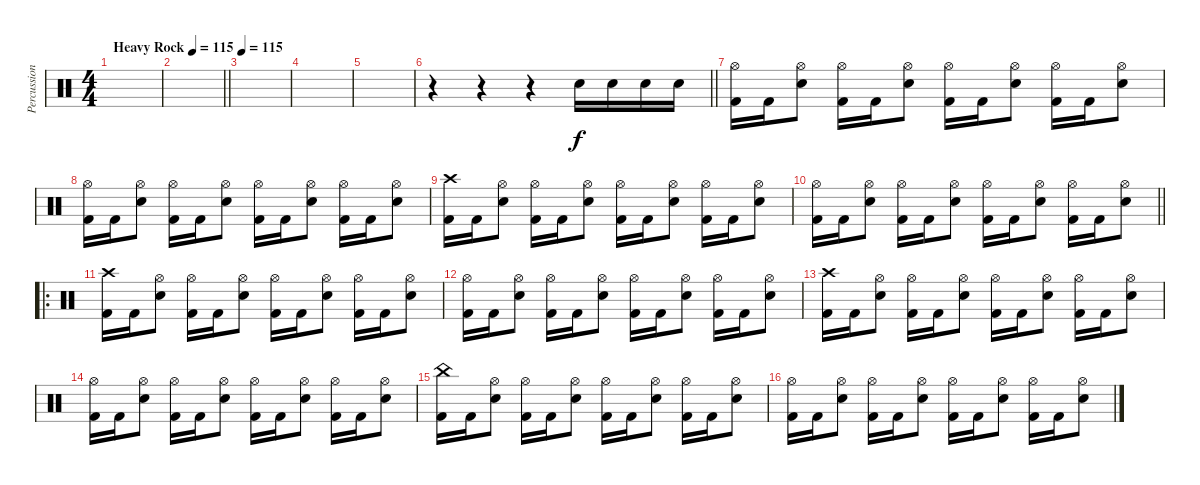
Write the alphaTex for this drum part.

\track ("Percussion" "Percussion") {instrument percussion}
\staff {score}
\articulation defaults
\ts (4 4)
\tempo (115 "Heavy Rock")
\tempo 95
\tempo (115 "Heavy Rock")
\clef neutral
\ks c
|
\barLineRight lightlight
|
\tempo 115
|
|
|
\barLineRight lightlight
r.4 r.4 r.4 "Snare (hit) 2".16 "Snare (hit) 2".16 "Snare (hit) 2".16 "Snare (hit) 2".16 |
("Hi-Hat (open)" "Kick (hit) 2").16 "Kick (hit) 2".16 ("Hi-Hat (open)" "Snare (hit) 2").8 ("Hi-Hat (open)" "Kick (hit) 2").16 "Kick (hit) 2".16 ("Hi-Hat (open)" "Snare (hit) 2").8 ("Hi-Hat (open)" "Kick (hit) 2").16 "Kick (hit) 2".16 ("Hi-Hat (open)" "Snare (hit) 2").8 ("Hi-Hat (open)" "Kick (hit) 2").16 "Kick (hit) 2".16 ("Hi-Hat (open)" "Snare (hit) 2").8 |
("Hi-Hat (open)" "Kick (hit) 2").16 "Kick (hit) 2".16 ("Hi-Hat (open)" "Snare (hit) 2").8 ("Hi-Hat (open)" "Kick (hit) 2").16 "Kick (hit) 2".16 ("Hi-Hat (open)" "Snare (hit) 2").8 ("Hi-Hat (open)" "Kick (hit) 2").16 "Kick (hit) 2".16 ("Hi-Hat (open)" "Snare (hit) 2").8 ("Hi-Hat (open)" "Kick (hit) 2").16 "Kick (hit) 2".16 ("Hi-Hat (open)" "Snare (hit) 2").8 |
("Crash high (hit)" "Kick (hit) 2").16 "Kick (hit) 2".16 ("Hi-Hat (open)" "Snare (hit) 2").8 ("Hi-Hat (open)" "Kick (hit) 2").16 "Kick (hit) 2".16 ("Hi-Hat (open)" "Snare (hit) 2").8 ("Hi-Hat (open)" "Kick (hit) 2").16 "Kick (hit) 2".16 ("Hi-Hat (open)" "Snare (hit) 2").8 ("Hi-Hat (open)" "Kick (hit) 2").16 "Kick (hit) 2".16 ("Hi-Hat (open)" "Snare (hit) 2").8 |
\barLineRight lightlight
("Hi-Hat (open)" "Kick (hit) 2").16 "Kick (hit) 2".16 ("Hi-Hat (open)" "Snare (hit) 2").8 ("Hi-Hat (open)" "Kick (hit) 2").16 "Kick (hit) 2".16 ("Hi-Hat (open)" "Snare (hit) 2").8 ("Hi-Hat (open)" "Kick (hit) 2").16 "Kick (hit) 2".16 ("Hi-Hat (open)" "Snare (hit) 2").8 ("Hi-Hat (open)" "Kick (hit) 2").16 "Kick (hit) 2".16 ("Hi-Hat (open)" "Snare (hit) 2").8 |
\ro
("Crash high (hit)" "Kick (hit) 2").16 "Kick (hit) 2".16 ("Hi-Hat (open)" "Snare (hit) 2").8 ("Hi-Hat (open)" "Kick (hit) 2").16 "Kick (hit) 2".16 ("Hi-Hat (open)" "Snare (hit) 2").8 ("Hi-Hat (open)" "Kick (hit) 2").16 "Kick (hit) 2".16 ("Hi-Hat (open)" "Snare (hit) 2").8 ("Hi-Hat (open)" "Kick (hit) 2").16 "Kick (hit) 2".16 ("Hi-Hat (open)" "Snare (hit) 2").8 |
("Hi-Hat (open)" "Kick (hit) 2").16 "Kick (hit) 2".16 ("Hi-Hat (open)" "Snare (hit) 2").8 ("Hi-Hat (open)" "Kick (hit) 2").16 "Kick (hit) 2".16 ("Hi-Hat (open)" "Snare (hit) 2").8 ("Hi-Hat (open)" "Kick (hit) 2").16 "Kick (hit) 2".16 ("Hi-Hat (open)" "Snare (hit) 2").8 ("Hi-Hat (open)" "Kick (hit) 2").16 "Kick (hit) 2".16 ("Hi-Hat (open)" "Snare (hit) 2").8 |
("Crash high (hit)" "Kick (hit) 2").16 "Kick (hit) 2".16 ("Hi-Hat (open)" "Snare (hit) 2").8 ("Hi-Hat (open)" "Kick (hit) 2").16 "Kick (hit) 2".16 ("Hi-Hat (open)" "Snare (hit) 2").8 ("Hi-Hat (open)" "Kick (hit) 2").16 "Kick (hit) 2".16 ("Hi-Hat (open)" "Snare (hit) 2").8 ("Hi-Hat (open)" "Kick (hit) 2").16 "Kick (hit) 2".16 ("Hi-Hat (open)" "Snare (hit) 2").8 |
("Hi-Hat (open)" "Kick (hit) 2").16 "Kick (hit) 2".16 ("Hi-Hat (open)" "Snare (hit) 2").8 ("Hi-Hat (open)" "Kick (hit) 2").16 "Kick (hit) 2".16 ("Hi-Hat (open)" "Snare (hit) 2").8 ("Hi-Hat (open)" "Kick (hit) 2").16 "Kick (hit) 2".16 ("Hi-Hat (open)" "Snare (hit) 2").8 ("Hi-Hat (open)" "Kick (hit) 2").16 "Kick (hit) 2".16 ("Hi-Hat (open)" "Snare (hit) 2").8 |
("China (hit)" "Kick (hit) 2").16 "Kick (hit) 2".16 ("Hi-Hat (open)" "Snare (hit) 2").8 ("Hi-Hat (open)" "Kick (hit) 2").16 "Kick (hit) 2".16 ("Hi-Hat (open)" "Snare (hit) 2").8 ("Hi-Hat (open)" "Kick (hit) 2").16 "Kick (hit) 2".16 ("Hi-Hat (open)" "Snare (hit) 2").8 ("Hi-Hat (open)" "Kick (hit) 2").16 "Kick (hit) 2".16 ("Hi-Hat (open)" "Snare (hit) 2").8 |
("Hi-Hat (open)" "Kick (hit) 2").16 "Kick (hit) 2".16 ("Hi-Hat (open)" "Snare (hit) 2").8 ("Hi-Hat (open)" "Kick (hit) 2").16 "Kick (hit) 2".16 ("Hi-Hat (open)" "Snare (hit) 2").8 ("Hi-Hat (open)" "Kick (hit) 2").16 "Kick (hit) 2".16 ("Hi-Hat (open)" "Snare (hit) 2").8 ("Hi-Hat (open)" "Kick (hit) 2").16 "Kick (hit) 2".16 ("Hi-Hat (open)" "Snare (hit) 2").8
